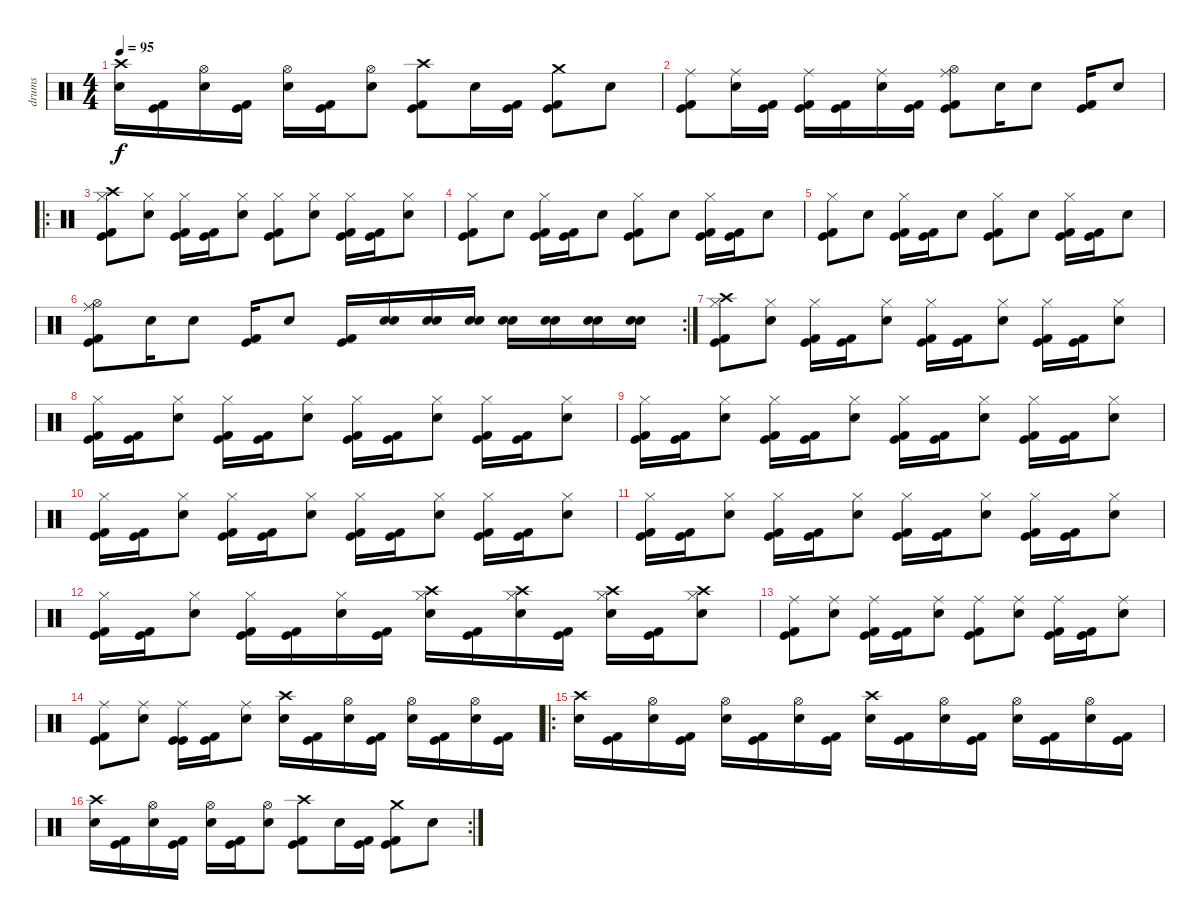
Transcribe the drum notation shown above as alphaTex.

\track ("drums" "drums") {instrument percussion}
\staff {score}
\articulation defaults
\ts (4 4)
\tempo 95
\clef neutral
\ks c
("Crash high (hit)" "Electric Snare (hit)").16{dy f} ("Kick (hit)" "Kick (hit) 2").16 ("Hi-Hat (open)" "Electric Snare (hit)").16 ("Kick (hit)" "Kick (hit) 2").16 ("Hi-Hat (open)" "Electric Snare (hit)").16 ("Kick (hit)" "Kick (hit) 2").16 ("Hi-Hat (open)" "Electric Snare (hit)").8 ("Crash high (hit)" "Kick (hit) 2" "Kick (hit)").8 "Electric Snare (hit)".16 ("Kick (hit) 2" "Kick (hit)").16 ("Crash medium (hit)" "Kick (hit) 2" "Kick (hit)").8 "Electric Snare (hit)".8 |
("Ride (middle)" "Kick (hit)" "Kick (hit) 2").8 ("Ride (middle)" "Electric Snare (hit)").16 ("Kick (hit) 2" "Kick (hit)").16 ("Ride (middle)" "Kick (hit) 2" "Kick (hit)").16 ("Kick (hit) 2" "Kick (hit)").16 ("Ride (middle)" "Electric Snare (hit)").16 ("Kick (hit) 2" "Kick (hit)").16 ("Ride (middle)" "Hi-Hat (open)" "Kick (hit) 2" "Kick (hit)").8 "Electric Snare (hit)".16 "Electric Snare (hit)".8 ("Kick (hit)" "Kick (hit) 2").16 "Electric Snare (hit)".8 |
\ro
("Crash high (hit)" "Hi-Hat (closed)" "Kick (hit)" "Kick (hit) 2").8 ("Hi-Hat (closed)" "Electric Snare (hit)").8 ("Hi-Hat (closed)" "Kick (hit) 2" "Kick (hit)").16 ("Kick (hit) 2" "Kick (hit)").16 ("Hi-Hat (closed)" "Electric Snare (hit)").8 ("Hi-Hat (closed)" "Kick (hit)" "Kick (hit) 2").8 ("Hi-Hat (closed)" "Electric Snare (hit)").8 ("Hi-Hat (closed)" "Kick (hit) 2" "Kick (hit)").16 ("Kick (hit) 2" "Kick (hit)").16 ("Hi-Hat (closed)" "Electric Snare (hit)").8 |
("Hi-Hat (closed)" "Kick (hit)" "Kick (hit) 2").8 "Electric Snare (hit)".8 ("Hi-Hat (closed)" "Kick (hit) 2" "Kick (hit)").16 ("Kick (hit) 2" "Kick (hit)").16 "Electric Snare (hit)".8 ("Hi-Hat (closed)" "Kick (hit)" "Kick (hit) 2").8 "Electric Snare (hit)".8 ("Hi-Hat (closed)" "Kick (hit) 2" "Kick (hit)").16 ("Kick (hit) 2" "Kick (hit)").16 "Electric Snare (hit)".8 |
("Hi-Hat (closed)" "Kick (hit)" "Kick (hit) 2").8 "Electric Snare (hit)".8 ("Hi-Hat (closed)" "Kick (hit) 2" "Kick (hit)").16 ("Kick (hit) 2" "Kick (hit)").16 "Electric Snare (hit)".8 ("Hi-Hat (closed)" "Kick (hit)" "Kick (hit) 2").8 "Electric Snare (hit)".8 ("Hi-Hat (closed)" "Kick (hit) 2" "Kick (hit)").16 ("Kick (hit) 2" "Kick (hit)").16 "Electric Snare (hit)".8 |
\rc 2
("Ride (middle)" "Hi-Hat (open)" "Kick (hit) 2" "Kick (hit)").8 "Electric Snare (hit)".16 "Electric Snare (hit)".8 ("Kick (hit)" "Kick (hit) 2").16 "Electric Snare (hit)".8 ("Kick (hit) 2" "Kick (hit)").16 ("Electric Snare (hit)" "Electric Snare (hit)").16 ("Electric Snare (hit)" "Electric Snare (hit)").16 ("Electric Snare (hit)" "Electric Snare (hit)").16 ("Electric Snare (hit)" "Electric Snare (hit)").16 ("Electric Snare (hit)" "Electric Snare (hit)").16 ("Electric Snare (hit)" "Electric Snare (hit)").16 ("Electric Snare (hit)" "Electric Snare (hit)").16 |
("Hi-Hat (closed)" "Crash high (hit)" "Kick (hit) 2" "Kick (hit)").8 ("Electric Snare (hit)" "Hi-Hat (closed)").8 ("Hi-Hat (closed)" "Kick (hit)" "Kick (hit) 2").16 ("Kick (hit) 2" "Kick (hit)").16 ("Hi-Hat (closed)" "Electric Snare (hit)").8 ("Hi-Hat (closed)" "Kick (hit)" "Kick (hit) 2").16 ("Kick (hit) 2" "Kick (hit)").16 ("Hi-Hat (closed)" "Electric Snare (hit)").8 ("Hi-Hat (closed)" "Kick (hit)" "Kick (hit) 2").16 ("Kick (hit) 2" "Kick (hit)").16 ("Hi-Hat (closed)" "Electric Snare (hit)").8 |
("Hi-Hat (closed)" "Kick (hit)" "Kick (hit) 2").16 ("Kick (hit)" "Kick (hit) 2").16 ("Hi-Hat (closed)" "Electric Snare (hit)").8 ("Hi-Hat (closed)" "Kick (hit)" "Kick (hit) 2").16 ("Kick (hit)" "Kick (hit) 2").16 ("Hi-Hat (closed)" "Electric Snare (hit)").8 ("Hi-Hat (closed)" "Kick (hit)" "Kick (hit) 2").16 ("Kick (hit)" "Kick (hit) 2").16 ("Hi-Hat (closed)" "Electric Snare (hit)").8 ("Hi-Hat (closed)" "Kick (hit)" "Kick (hit) 2").16 ("Kick (hit)" "Kick (hit) 2").16 ("Hi-Hat (closed)" "Electric Snare (hit)").8 |
("Hi-Hat (closed)" "Kick (hit)" "Kick (hit) 2").16 ("Kick (hit)" "Kick (hit) 2").16 ("Hi-Hat (closed)" "Electric Snare (hit)").8 ("Hi-Hat (closed)" "Kick (hit)" "Kick (hit) 2").16 ("Kick (hit)" "Kick (hit) 2").16 ("Hi-Hat (closed)" "Electric Snare (hit)").8 ("Hi-Hat (closed)" "Kick (hit)" "Kick (hit) 2").16 ("Kick (hit)" "Kick (hit) 2").16 ("Hi-Hat (closed)" "Electric Snare (hit)").8 ("Hi-Hat (closed)" "Kick (hit)" "Kick (hit) 2").16 ("Kick (hit)" "Kick (hit) 2").16 ("Hi-Hat (closed)" "Electric Snare (hit)").8 |
("Hi-Hat (closed)" "Kick (hit)" "Kick (hit) 2").16 ("Kick (hit)" "Kick (hit) 2").16 ("Hi-Hat (closed)" "Electric Snare (hit)").8 ("Hi-Hat (closed)" "Kick (hit)" "Kick (hit) 2").16 ("Kick (hit)" "Kick (hit) 2").16 ("Hi-Hat (closed)" "Electric Snare (hit)").8 ("Hi-Hat (closed)" "Kick (hit)" "Kick (hit) 2").16 ("Kick (hit)" "Kick (hit) 2").16 ("Hi-Hat (closed)" "Electric Snare (hit)").8 ("Hi-Hat (closed)" "Kick (hit)" "Kick (hit) 2").16 ("Kick (hit)" "Kick (hit) 2").16 ("Hi-Hat (closed)" "Electric Snare (hit)").8 |
("Hi-Hat (closed)" "Kick (hit)" "Kick (hit) 2").16 ("Kick (hit)" "Kick (hit) 2").16 ("Hi-Hat (closed)" "Electric Snare (hit)").8 ("Hi-Hat (closed)" "Kick (hit)" "Kick (hit) 2").16 ("Kick (hit)" "Kick (hit) 2").16 ("Hi-Hat (closed)" "Electric Snare (hit)").8 ("Hi-Hat (closed)" "Kick (hit)" "Kick (hit) 2").16 ("Kick (hit)" "Kick (hit) 2").16 ("Hi-Hat (closed)" "Electric Snare (hit)").8 ("Hi-Hat (closed)" "Kick (hit)" "Kick (hit) 2").16 ("Kick (hit)" "Kick (hit) 2").16 ("Hi-Hat (closed)" "Electric Snare (hit)").8 |
("Hi-Hat (closed)" "Kick (hit)" "Kick (hit) 2").16 ("Kick (hit)" "Kick (hit) 2").16 ("Hi-Hat (closed)" "Electric Snare (hit)").8 ("Hi-Hat (closed)" "Kick (hit)" "Kick (hit) 2").16 ("Kick (hit)" "Kick (hit) 2").16 ("Hi-Hat (closed)" "Electric Snare (hit)").16 ("Kick (hit)" "Kick (hit) 2").16 ("Crash high (hit)" "Hi-Hat (closed)" "Electric Snare (hit)").16 ("Kick (hit)" "Kick (hit) 2").16 ("Crash high (hit)" "Hi-Hat (closed)" "Electric Snare (hit)").16 ("Kick (hit)" "Kick (hit) 2").16 ("Crash high (hit)" "Hi-Hat (closed)" "Electric Snare (hit)").16 ("Kick (hit)" "Kick (hit) 2").16 ("Crash high (hit)" "Hi-Hat (closed)" "Electric Snare (hit)").8 |
("Ride (middle)" "Kick (hit)" "Kick (hit) 2").8 ("Ride (middle)" "Electric Snare (hit)").8 ("Ride (middle)" "Kick (hit) 2" "Kick (hit)").16 ("Kick (hit) 2" "Kick (hit)").16 ("Ride (middle)" "Electric Snare (hit)").8 ("Ride (middle)" "Kick (hit)" "Kick (hit) 2").8 ("Ride (middle)" "Electric Snare (hit)").8 ("Ride (middle)" "Kick (hit) 2" "Kick (hit)").16 ("Kick (hit) 2" "Kick (hit)").16 ("Ride (middle)" "Electric Snare (hit)").8 |
("Ride (middle)" "Kick (hit) 2" "Kick (hit)").8 ("Ride (middle)" "Electric Snare (hit)").8 ("Ride (middle)" "Kick (hit)" "Kick (hit)").16 ("Kick (hit)" "Kick (hit) 2").16 ("Ride (middle)" "Electric Snare (hit)").8 ("Crash high (hit)" "Electric Snare (hit)").16 ("Kick (hit)" "Kick (hit) 2").16 ("Hi-Hat (open)" "Electric Snare (hit)").16 ("Kick (hit)" "Kick (hit) 2").16 ("Hi-Hat (open)" "Electric Snare (hit)").16 ("Kick (hit)" "Kick (hit) 2").16 ("Hi-Hat (open)" "Electric Snare (hit)").16 ("Kick (hit)" "Kick (hit) 2").16 |
\ro
("Crash high (hit)" "Electric Snare (hit)").16 ("Kick (hit)" "Kick (hit) 2").16 ("Hi-Hat (open)" "Electric Snare (hit)").16 ("Kick (hit)" "Kick (hit) 2").16 ("Hi-Hat (open)" "Electric Snare (hit)").16 ("Kick (hit)" "Kick (hit) 2").16 ("Hi-Hat (open)" "Electric Snare (hit)").16 ("Kick (hit)" "Kick (hit) 2").16 ("Crash high (hit)" "Electric Snare (hit)").16 ("Kick (hit)" "Kick (hit) 2").16 ("Hi-Hat (open)" "Electric Snare (hit)").16 ("Kick (hit)" "Kick (hit) 2").16 ("Hi-Hat (open)" "Electric Snare (hit)").16 ("Kick (hit)" "Kick (hit) 2").16 ("Hi-Hat (open)" "Electric Snare (hit)").16 ("Kick (hit)" "Kick (hit) 2").16 |
\rc 2
("Crash high (hit)" "Electric Snare (hit)").16 ("Kick (hit)" "Kick (hit) 2").16 ("Hi-Hat (open)" "Electric Snare (hit)").16 ("Kick (hit)" "Kick (hit) 2").16 ("Hi-Hat (open)" "Electric Snare (hit)").16 ("Kick (hit)" "Kick (hit) 2").16 ("Hi-Hat (open)" "Electric Snare (hit)").8 ("Crash high (hit)" "Kick (hit) 2" "Kick (hit)").8 "Electric Snare (hit)".16 ("Kick (hit) 2" "Kick (hit)").16 ("Crash medium (hit)" "Kick (hit) 2" "Kick (hit)").8 "Electric Snare (hit)".8
